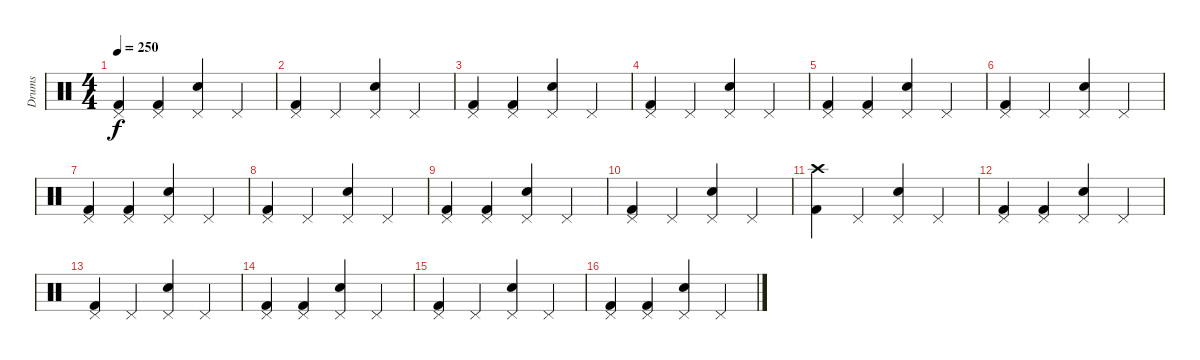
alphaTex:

\track ("Drums" "Drums") {instrument percussion}
\staff {score}
\articulation defaults
\ts (4 4)
\tempo 250
\clef neutral
\ks c
("Pedal Hi-Hat (hit)" "Kick (hit) 2").4{dy f} ("Pedal Hi-Hat (hit)" "Kick (hit) 2").4 ("Pedal Hi-Hat (hit)" "Electric Snare (hit)").4 "Pedal Hi-Hat (hit)".4 |
("Pedal Hi-Hat (hit)" "Kick (hit) 2").4 "Pedal Hi-Hat (hit)".4 ("Pedal Hi-Hat (hit)" "Electric Snare (hit)").4 "Pedal Hi-Hat (hit)".4 |
("Pedal Hi-Hat (hit)" "Kick (hit) 2").4 ("Pedal Hi-Hat (hit)" "Kick (hit) 2").4 ("Pedal Hi-Hat (hit)" "Electric Snare (hit)").4 "Pedal Hi-Hat (hit)".4 |
("Pedal Hi-Hat (hit)" "Kick (hit) 2").4 "Pedal Hi-Hat (hit)".4 ("Pedal Hi-Hat (hit)" "Electric Snare (hit)").4 "Pedal Hi-Hat (hit)".4 |
("Pedal Hi-Hat (hit)" "Kick (hit) 2").4 ("Pedal Hi-Hat (hit)" "Kick (hit) 2").4 ("Pedal Hi-Hat (hit)" "Electric Snare (hit)").4 "Pedal Hi-Hat (hit)".4 |
("Pedal Hi-Hat (hit)" "Kick (hit) 2").4 "Pedal Hi-Hat (hit)".4 ("Pedal Hi-Hat (hit)" "Electric Snare (hit)").4 "Pedal Hi-Hat (hit)".4 |
("Pedal Hi-Hat (hit)" "Kick (hit) 2").4 ("Pedal Hi-Hat (hit)" "Kick (hit) 2").4 ("Pedal Hi-Hat (hit)" "Electric Snare (hit)").4 "Pedal Hi-Hat (hit)".4 |
("Pedal Hi-Hat (hit)" "Kick (hit) 2").4 "Pedal Hi-Hat (hit)".4 ("Pedal Hi-Hat (hit)" "Electric Snare (hit)").4 "Pedal Hi-Hat (hit)".4 |
("Pedal Hi-Hat (hit)" "Kick (hit) 2").4 ("Pedal Hi-Hat (hit)" "Kick (hit) 2").4 ("Pedal Hi-Hat (hit)" "Electric Snare (hit)").4 "Pedal Hi-Hat (hit)".4 |
("Pedal Hi-Hat (hit)" "Kick (hit) 2").4 "Pedal Hi-Hat (hit)".4 ("Pedal Hi-Hat (hit)" "Electric Snare (hit)").4 "Pedal Hi-Hat (hit)".4 |
("Kick (hit) 2" "Crash high (hit)").4 "Pedal Hi-Hat (hit)".4 ("Pedal Hi-Hat (hit)" "Electric Snare (hit)").4 "Pedal Hi-Hat (hit)".4 |
("Pedal Hi-Hat (hit)" "Kick (hit) 2").4 ("Pedal Hi-Hat (hit)" "Kick (hit) 2").4 ("Pedal Hi-Hat (hit)" "Electric Snare (hit)").4 "Pedal Hi-Hat (hit)".4 |
("Pedal Hi-Hat (hit)" "Kick (hit) 2").4 "Pedal Hi-Hat (hit)".4 ("Pedal Hi-Hat (hit)" "Electric Snare (hit)").4 "Pedal Hi-Hat (hit)".4 |
("Pedal Hi-Hat (hit)" "Kick (hit) 2").4 ("Pedal Hi-Hat (hit)" "Kick (hit) 2").4 ("Pedal Hi-Hat (hit)" "Electric Snare (hit)").4 "Pedal Hi-Hat (hit)".4 |
("Pedal Hi-Hat (hit)" "Kick (hit) 2").4 "Pedal Hi-Hat (hit)".4 ("Pedal Hi-Hat (hit)" "Electric Snare (hit)").4 "Pedal Hi-Hat (hit)".4 |
("Pedal Hi-Hat (hit)" "Kick (hit) 2").4 ("Pedal Hi-Hat (hit)" "Kick (hit) 2").4 ("Pedal Hi-Hat (hit)" "Electric Snare (hit)").4 "Pedal Hi-Hat (hit)".4
